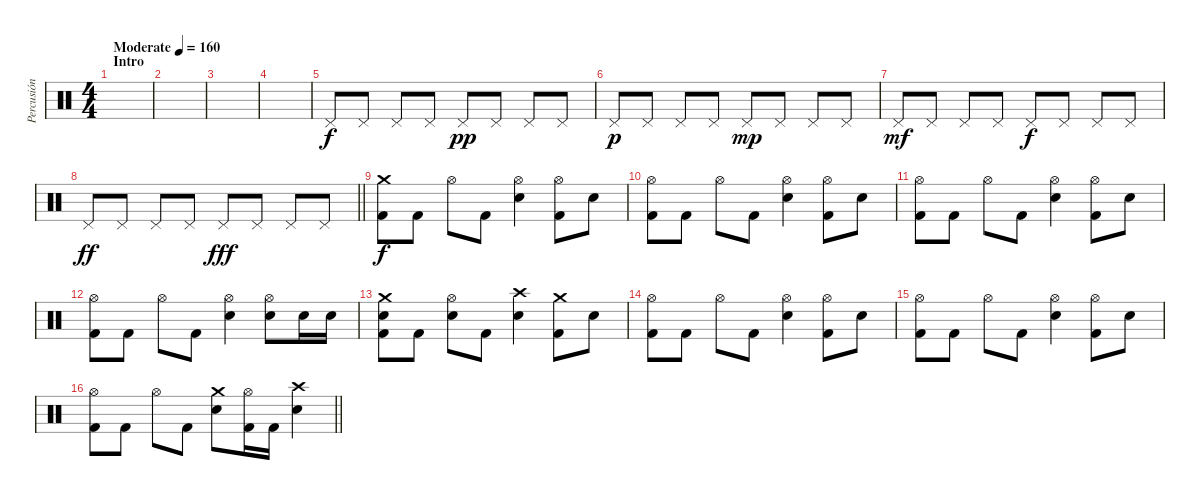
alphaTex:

\track ("Percusión" "Percusión") {instrument percussion}
\staff {score}
\articulation defaults
\ts (4 4)
\section ("" "Intro")
\tempo (160 "Moderate")
\clef neutral
\ks c
|
|
|
|
"Pedal Hi-Hat (hit)".8 "Pedal Hi-Hat (hit)".8 "Pedal Hi-Hat (hit)".8 "Pedal Hi-Hat (hit)".8 "Pedal Hi-Hat (hit)".8{dy pp} "Pedal Hi-Hat (hit)".8 "Pedal Hi-Hat (hit)".8 "Pedal Hi-Hat (hit)".8 |
"Pedal Hi-Hat (hit)".8{dy p} "Pedal Hi-Hat (hit)".8 "Pedal Hi-Hat (hit)".8 "Pedal Hi-Hat (hit)".8 "Pedal Hi-Hat (hit)".8{dy mp} "Pedal Hi-Hat (hit)".8 "Pedal Hi-Hat (hit)".8 "Pedal Hi-Hat (hit)".8 |
"Pedal Hi-Hat (hit)".8{dy mf} "Pedal Hi-Hat (hit)".8 "Pedal Hi-Hat (hit)".8 "Pedal Hi-Hat (hit)".8 "Pedal Hi-Hat (hit)".8{dy f} "Pedal Hi-Hat (hit)".8 "Pedal Hi-Hat (hit)".8 "Pedal Hi-Hat (hit)".8 |
\barLineRight lightlight "Pedal Hi-Hat (hit)".8{dy ff} "Pedal Hi-Hat (hit)".8 "Pedal Hi-Hat (hit)".8 "Pedal Hi-Hat (hit)".8 "Pedal Hi-Hat (hit)".8{dy fff} "Pedal Hi-Hat (hit)".8 "Pedal Hi-Hat (hit)".8 "Pedal Hi-Hat (hit)".8
|
("Crash medium (hit)" "Kick (hit) 2").8{dy f} "Kick (hit) 2".8 "Hi-Hat (open)".8 "Kick (hit) 2".8 ("Hi-Hat (open)" "Snare (hit) 2").4 ("Hi-Hat (open)" "Kick (hit) 2").8 "Snare (hit) 2".8 |
("Hi-Hat (open)" "Kick (hit) 2").8 "Kick (hit) 2".8 "Hi-Hat (open)".8 "Kick (hit) 2".8 ("Hi-Hat (open)" "Snare (hit) 2").4 ("Hi-Hat (open)" "Kick (hit) 2").8 "Snare (hit) 2".8 |
("Hi-Hat (open)" "Kick (hit) 2").8 "Kick (hit) 2".8 "Hi-Hat (open)".8 "Kick (hit) 2".8 ("Hi-Hat (open)" "Snare (hit) 2").4 ("Hi-Hat (open)" "Kick (hit) 2").8 "Snare (hit) 2".8 |
("Hi-Hat (open)" "Kick (hit) 2").8 "Kick (hit) 2".8 "Hi-Hat (open)".8 "Kick (hit) 2".8 ("Hi-Hat (open)" "Snare (hit) 2").4 ("Hi-Hat (open)" "Snare (hit) 2").8 "Snare (hit) 2".16 "Snare (hit) 2".16 |
("Crash medium (hit)" "Snare (hit) 2" "Kick (hit) 2").8 "Kick (hit) 2".8 ("Hi-Hat (open)" "Snare (hit) 2").8 "Kick (hit) 2".8 ("Crash high (hit)" "Snare (hit) 2").4 ("Crash medium (hit)" "Kick (hit) 2").8 "Snare (hit) 2".8 |
("Hi-Hat (open)" "Kick (hit) 2").8 "Kick (hit) 2".8 "Hi-Hat (open)".8 "Kick (hit) 2".8 ("Hi-Hat (open)" "Snare (hit) 2").4 ("Hi-Hat (open)" "Kick (hit) 2").8 "Snare (hit) 2".8 |
("Hi-Hat (open)" "Kick (hit) 2").8 "Kick (hit) 2".8 "Hi-Hat (open)".8 "Kick (hit) 2".8 ("Hi-Hat (open)" "Snare (hit) 2").4 ("Hi-Hat (open)" "Kick (hit) 2").8 "Snare (hit) 2".8 |
\barLineRight lightlight
("Hi-Hat (open)" "Kick (hit) 2").8 "Kick (hit) 2".8 "Hi-Hat (open)".8 "Kick (hit) 2".8 ("Crash medium (hit)" "Snare (hit) 2").8 ("Hi-Hat (open)" "Kick (hit) 2").16 "Kick (hit) 2".16 ("Crash high (hit)" "Snare (hit) 2").4
